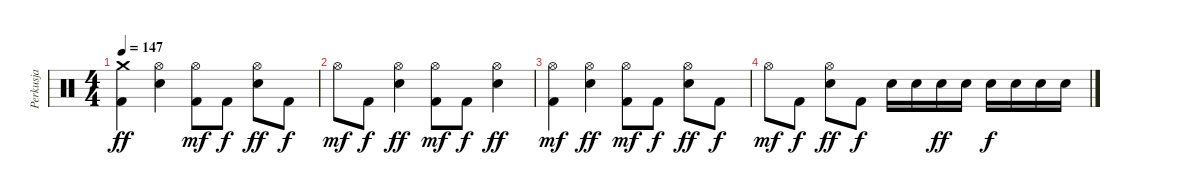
\track ("Perkusja" "Perkusja") {instrument percussion}
\staff {score}
\articulation defaults
\ts (4 4)
\tempo 147
\clef neutral
\ks c
("Crash medium (hit)" "Kick (hit) 2").4{dy ff volume 6} ("Hi-Hat (open)" "Electric Snare (hit)").4 ("Hi-Hat (open)" "Kick (hit) 2").8{dy mf} "Kick (hit) 2".8{dy f} ("Hi-Hat (open)" "Electric Snare (hit)").8{dy ff} "Kick (hit) 2".8{dy f} |
"Hi-Hat (open)".8{dy mf} "Kick (hit) 2".8{dy f} ("Hi-Hat (open)" "Electric Snare (hit)").4{dy ff} ("Hi-Hat (open)" "Kick (hit) 2").8{dy mf} "Kick (hit) 2".8{dy f} ("Hi-Hat (open)" "Electric Snare (hit)").4{dy ff} |
("Hi-Hat (open)" "Kick (hit) 2").4{dy mf} ("Hi-Hat (open)" "Electric Snare (hit)").4{dy ff} ("Hi-Hat (open)" "Kick (hit) 2").8{dy mf} "Kick (hit) 2".8{dy f} ("Hi-Hat (open)" "Electric Snare (hit)").8{dy ff} "Kick (hit) 2".8{dy f} |
"Hi-Hat (open)".8{dy mf} "Kick (hit) 2".8{dy f} ("Hi-Hat (open)" "Electric Snare (hit)").8{dy ff} "Kick (hit) 2".8{dy f} "Electric Snare (hit)".16 "Electric Snare (hit)".16 "Electric Snare (hit)".16{dy ff} "Electric Snare (hit)".16 "Electric Snare (hit)".16{dy f} "Electric Snare (hit)".16 "Electric Snare (hit)".16 "Electric Snare (hit)".16
